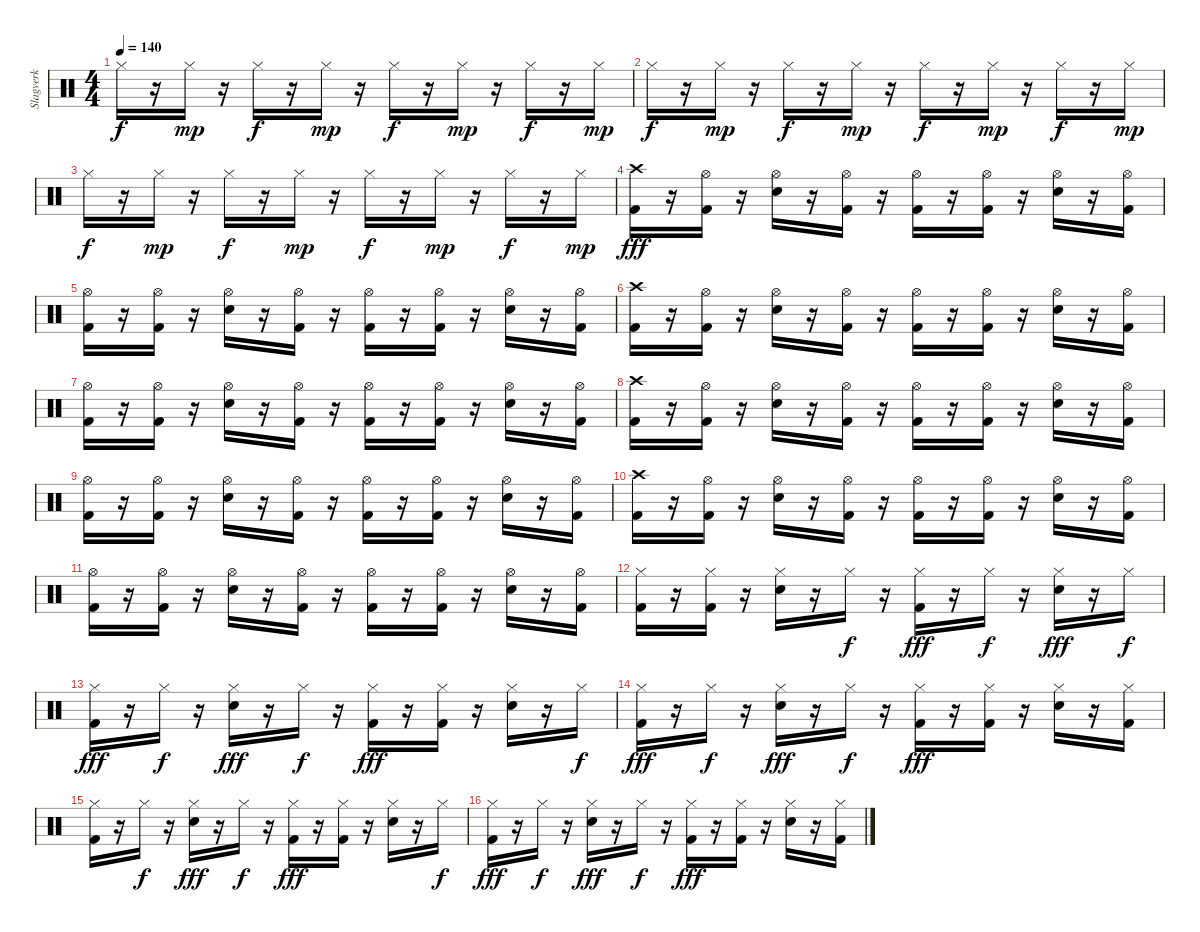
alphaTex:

\track ("Slagverk" "Slagverk") {instrument percussion}
\staff {score}
\articulation defaults
\ts (4 4)
\tempo 140
\clef neutral
\ks c "Hi-Hat (closed)".16{dy f}
r.16 "Hi-Hat (closed)".16{dy mp} r.16 "Hi-Hat (closed)".16{dy f} r.16 "Hi-Hat (closed)".16{dy mp} r.16 "Hi-Hat (closed)".16{dy f} r.16 "Hi-Hat (closed)".16{dy mp} r.16 "Hi-Hat (closed)".16{dy f} r.16 "Hi-Hat (closed)".16{dy mp} |
"Hi-Hat (closed)".16{dy f} r.16 "Hi-Hat (closed)".16{dy mp} r.16 "Hi-Hat (closed)".16{dy f} r.16 "Hi-Hat (closed)".16{dy mp} r.16 "Hi-Hat (closed)".16{dy f} r.16 "Hi-Hat (closed)".16{dy mp} r.16 "Hi-Hat (closed)".16{dy f} r.16 "Hi-Hat (closed)".16{dy mp} |
"Hi-Hat (closed)".16{dy f} r.16 "Hi-Hat (closed)".16{dy mp} r.16 "Hi-Hat (closed)".16{dy f} r.16 "Hi-Hat (closed)".16{dy mp} r.16 "Hi-Hat (closed)".16{dy f} r.16 "Hi-Hat (closed)".16{dy mp} r.16 "Hi-Hat (closed)".16{dy f} r.16 "Hi-Hat (closed)".16{dy mp} |
("Crash high (hit)" "Kick (hit) 2").16{dy fff} r.16 ("Hi-Hat (open)" "Kick (hit) 2").16 r.16 ("Hi-Hat (open)" "Electric Snare (hit)").16 r.16 ("Hi-Hat (open)" "Kick (hit) 2").16 r.16 ("Hi-Hat (open)" "Kick (hit) 2").16 r.16 ("Hi-Hat (open)" "Kick (hit) 2").16 r.16 ("Hi-Hat (open)" "Electric Snare (hit)").16 r.16 ("Hi-Hat (open)" "Kick (hit) 2").16 |
("Hi-Hat (open)" "Kick (hit) 2").16 r.16 ("Hi-Hat (open)" "Kick (hit) 2").16 r.16 ("Hi-Hat (open)" "Electric Snare (hit)").16 r.16 ("Hi-Hat (open)" "Kick (hit) 2").16 r.16 ("Hi-Hat (open)" "Kick (hit) 2").16 r.16 ("Hi-Hat (open)" "Kick (hit) 2").16 r.16 ("Hi-Hat (open)" "Electric Snare (hit)").16 r.16 ("Hi-Hat (open)" "Kick (hit) 2").16 |
("Crash high (hit)" "Kick (hit) 2").16 r.16 ("Hi-Hat (open)" "Kick (hit) 2").16 r.16 ("Hi-Hat (open)" "Electric Snare (hit)").16 r.16 ("Hi-Hat (open)" "Kick (hit) 2").16 r.16 ("Hi-Hat (open)" "Kick (hit) 2").16 r.16 ("Hi-Hat (open)" "Kick (hit) 2").16 r.16 ("Hi-Hat (open)" "Electric Snare (hit)").16 r.16 ("Hi-Hat (open)" "Kick (hit) 2").16 |
("Hi-Hat (open)" "Kick (hit) 2").16 r.16 ("Hi-Hat (open)" "Kick (hit) 2").16 r.16 ("Hi-Hat (open)" "Electric Snare (hit)").16 r.16 ("Hi-Hat (open)" "Kick (hit) 2").16 r.16 ("Hi-Hat (open)" "Kick (hit) 2").16 r.16 ("Hi-Hat (open)" "Kick (hit) 2").16 r.16 ("Hi-Hat (open)" "Electric Snare (hit)").16 r.16 ("Hi-Hat (open)" "Kick (hit) 2").16 |
("Crash high (hit)" "Kick (hit) 2").16 r.16 ("Hi-Hat (open)" "Kick (hit) 2").16 r.16 ("Hi-Hat (open)" "Electric Snare (hit)").16 r.16 ("Hi-Hat (open)" "Kick (hit) 2").16 r.16 ("Hi-Hat (open)" "Kick (hit) 2").16 r.16 ("Hi-Hat (open)" "Kick (hit) 2").16 r.16 ("Hi-Hat (open)" "Electric Snare (hit)").16 r.16 ("Hi-Hat (open)" "Kick (hit) 2").16 |
("Hi-Hat (open)" "Kick (hit) 2").16 r.16 ("Hi-Hat (open)" "Kick (hit) 2").16 r.16 ("Hi-Hat (open)" "Electric Snare (hit)").16 r.16 ("Hi-Hat (open)" "Kick (hit) 2").16 r.16 ("Hi-Hat (open)" "Kick (hit) 2").16 r.16 ("Hi-Hat (open)" "Kick (hit) 2").16 r.16 ("Hi-Hat (open)" "Electric Snare (hit)").16 r.16 ("Hi-Hat (open)" "Kick (hit) 2").16 |
("Crash high (hit)" "Kick (hit) 2").16 r.16 ("Hi-Hat (open)" "Kick (hit) 2").16 r.16 ("Hi-Hat (open)" "Electric Snare (hit)").16 r.16 ("Hi-Hat (open)" "Kick (hit) 2").16 r.16 ("Hi-Hat (open)" "Kick (hit) 2").16 r.16 ("Hi-Hat (open)" "Kick (hit) 2").16 r.16 ("Hi-Hat (open)" "Electric Snare (hit)").16 r.16 ("Hi-Hat (open)" "Kick (hit) 2").16 |
("Hi-Hat (open)" "Kick (hit) 2").16 r.16 ("Hi-Hat (open)" "Kick (hit) 2").16 r.16 ("Hi-Hat (open)" "Electric Snare (hit)").16 r.16 ("Hi-Hat (open)" "Kick (hit) 2").16 r.16 ("Hi-Hat (open)" "Kick (hit) 2").16 r.16 ("Hi-Hat (open)" "Kick (hit) 2").16 r.16 ("Hi-Hat (open)" "Electric Snare (hit)").16 r.16 ("Hi-Hat (open)" "Kick (hit) 2").16 |
("Hi-Hat (closed)" "Kick (hit) 2").16 r.16 ("Hi-Hat (closed)" "Kick (hit) 2").16 r.16 ("Hi-Hat (closed)" "Electric Snare (hit)").16 r.16 "Hi-Hat (closed)".16{dy f} r.16 ("Hi-Hat (closed)" "Kick (hit) 2").16{dy fff} r.16 "Hi-Hat (closed)".16{dy f} r.16 ("Hi-Hat (closed)" "Electric Snare (hit)").16{dy fff} r.16 "Hi-Hat (closed)".16{dy f} |
("Hi-Hat (closed)" "Kick (hit) 2").16{dy fff} r.16 "Hi-Hat (closed)".16{dy f} r.16 ("Hi-Hat (closed)" "Electric Snare (hit)").16{dy fff} r.16 "Hi-Hat (closed)".16{dy f} r.16 ("Hi-Hat (closed)" "Kick (hit) 2").16{dy fff} r.16 ("Hi-Hat (closed)" "Kick (hit) 2").16 r.16 ("Hi-Hat (closed)" "Electric Snare (hit)").16 r.16 "Hi-Hat (closed)".16{dy f} |
("Hi-Hat (closed)" "Kick (hit) 2").16{dy fff} r.16 "Hi-Hat (closed)".16{dy f} r.16 ("Hi-Hat (closed)" "Electric Snare (hit)").16{dy fff} r.16 "Hi-Hat (closed)".16{dy f} r.16 ("Hi-Hat (closed)" "Kick (hit) 2").16{dy fff} r.16 ("Hi-Hat (closed)" "Kick (hit) 2").16 r.16 ("Hi-Hat (closed)" "Electric Snare (hit)").16 r.16 ("Hi-Hat (closed)" "Kick (hit) 2").16 |
("Hi-Hat (closed)" "Kick (hit) 2").16 r.16 "Hi-Hat (closed)".16{dy f} r.16 ("Hi-Hat (closed)" "Electric Snare (hit)").16{dy fff} r.16 "Hi-Hat (closed)".16{dy f} r.16 ("Hi-Hat (closed)" "Kick (hit) 2").16{dy fff} r.16 ("Hi-Hat (closed)" "Kick (hit) 2").16 r.16 ("Hi-Hat (closed)" "Electric Snare (hit)").16 r.16 "Hi-Hat (closed)".16{dy f} |
("Hi-Hat (closed)" "Kick (hit) 2").16{dy fff} r.16 "Hi-Hat (closed)".16{dy f} r.16 ("Hi-Hat (closed)" "Electric Snare (hit)").16{dy fff} r.16 "Hi-Hat (closed)".16{dy f} r.16 ("Hi-Hat (closed)" "Kick (hit) 2").16{dy fff} r.16 ("Hi-Hat (closed)" "Kick (hit) 2").16 r.16 ("Hi-Hat (closed)" "Electric Snare (hit)").16 r.16 ("Hi-Hat (closed)" "Kick (hit) 2").16
